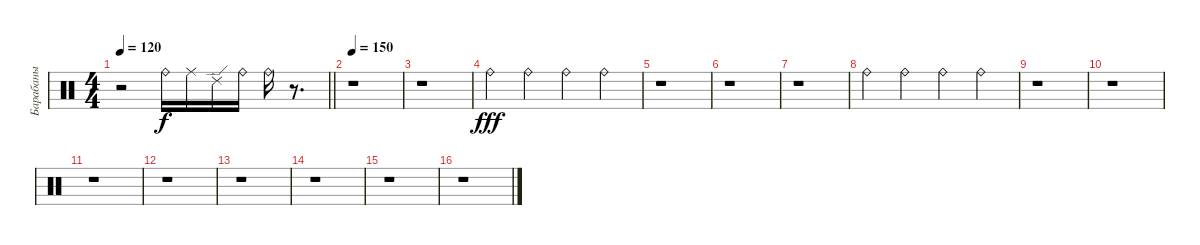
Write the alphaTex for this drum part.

\track ("Барабаны" "Барабаны") {instrument percussion}
\staff {score}
\articulation defaults
\ts (4 4)
\tempo 120
\clef neutral
\barLineRight lightlight
\ks c
r.2{dy fff} "Ride (bell)".16{dy f} "Ride (middle)".16 "Ride (edge) 2".16 "Ride (bell)".16 "Ride (bell)".16 r.8{d} |
\section ("" " ")
\tempo 150
r.1 |
r.1 |
"Ride (bell)".4{dy fff} "Ride (bell)".4 "Ride (bell)".4 "Ride (bell)".4 |
r.1 |
r.1 |
r.1 |
"Ride (bell)".4 "Ride (bell)".4 "Ride (bell)".4 "Ride (bell)".4 |
r.1 |
r.1 |
r.1 |
r.1 |
r.1 |
r.1 |
r.1 |
r.1
